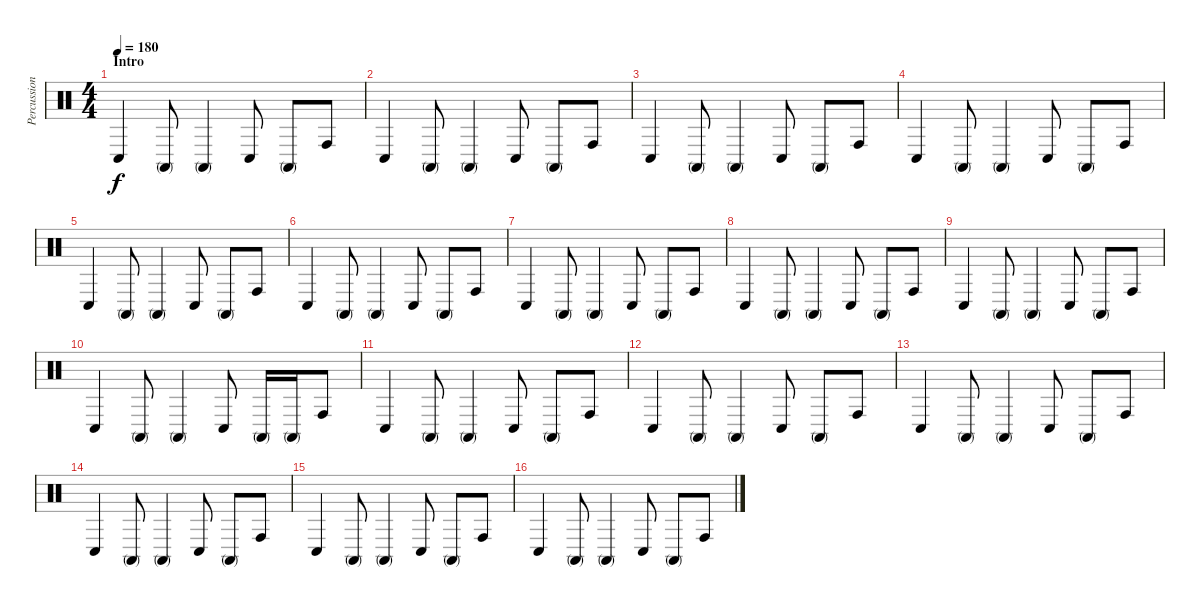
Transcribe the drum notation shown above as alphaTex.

\track ("Percussions" "Percussion") {instrument percussion}
\staff {score}
\articulation defaults
\ts (4 4)
\section ("" "Intro")
\tempo 180
\clef neutral
\ks c "Conga low (hit)".4{dy f} "Conga high (mute)".8 "Conga high (mute)".4 "Conga low (hit)".8 "Conga high (mute)".8 "Conga high (hit)".8
|
"Conga low (hit)".4 "Conga high (mute)".8 "Conga high (mute)".4 "Conga low (hit)".8 "Conga high (mute)".8 "Conga high (hit)".8 |
"Conga low (hit)".4 "Conga high (mute)".8 "Conga high (mute)".4 "Conga low (hit)".8 "Conga high (mute)".8 "Conga high (hit)".8 |
"Conga low (hit)".4 "Conga high (mute)".8 "Conga high (mute)".4 "Conga low (hit)".8 "Conga high (mute)".8 "Conga high (hit)".8 |
"Conga low (hit)".4 "Conga high (mute)".8 "Conga high (mute)".4 "Conga low (hit)".8 "Conga high (mute)".8 "Conga high (hit)".8 |
"Conga low (hit)".4 "Conga high (mute)".8 "Conga high (mute)".4 "Conga low (hit)".8 "Conga high (mute)".8 "Conga high (hit)".8 |
"Conga low (hit)".4 "Conga high (mute)".8 "Conga high (mute)".4 "Conga low (hit)".8 "Conga high (mute)".8 "Conga high (hit)".8 |
"Conga low (hit)".4 "Conga high (mute)".8 "Conga high (mute)".4 "Conga low (hit)".8 "Conga high (mute)".8 "Conga high (hit)".8 |
"Conga low (hit)".4 "Conga high (mute)".8 "Conga high (mute)".4 "Conga low (hit)".8 "Conga high (mute)".8 "Conga high (hit)".8 |
"Conga low (hit)".4 "Conga high (mute)".8 "Conga high (mute)".4 "Conga low (hit)".8 "Conga high (mute)".16 "Conga high (mute)".16 "Conga high (hit)".8 |
"Conga low (hit)".4 "Conga high (mute)".8 "Conga high (mute)".4 "Conga low (hit)".8 "Conga high (mute)".8 "Conga high (hit)".8 |
"Conga low (hit)".4 "Conga high (mute)".8 "Conga high (mute)".4 "Conga low (hit)".8 "Conga high (mute)".8 "Conga high (hit)".8 |
"Conga low (hit)".4 "Conga high (mute)".8 "Conga high (mute)".4 "Conga low (hit)".8 "Conga high (mute)".8 "Conga high (hit)".8 |
"Conga low (hit)".4 "Conga high (mute)".8 "Conga high (mute)".4 "Conga low (hit)".8 "Conga high (mute)".8 "Conga high (hit)".8 |
"Conga low (hit)".4 "Conga high (mute)".8 "Conga high (mute)".4 "Conga low (hit)".8 "Conga high (mute)".8 "Conga high (hit)".8 |
"Conga low (hit)".4 "Conga high (mute)".8 "Conga high (mute)".4 "Conga low (hit)".8 "Conga high (mute)".8 "Conga high (hit)".8
